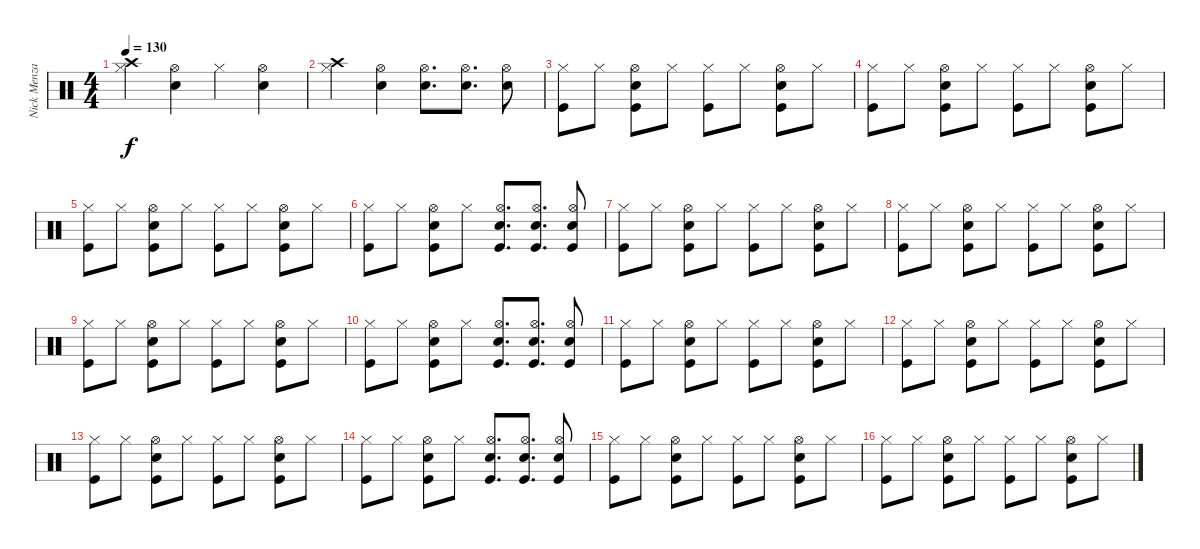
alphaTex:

\track ("Nick Menza" "Nick Menza") {instrument percussion}
\staff {score}
\articulation defaults
\ts (4 4)
\tempo 130
\clef neutral
\ks c
("Crash high (hit)" "Hi-Hat (closed)").4{dy f} ("Snare (hit) 2" "Hi-Hat (open)").4 "Hi-Hat (closed)".4 ("Snare (hit) 2" "Hi-Hat (open)").4 |
("Crash high (hit)" "Hi-Hat (closed)").4 ("Snare (hit) 2" "Hi-Hat (open)").4 ("Snare (hit) 2" "Hi-Hat (open)").8{d} ("Snare (hit) 2" "Hi-Hat (open)").8{d} ("Snare (hit) 2" "Hi-Hat (open)").8 |
("Hi-Hat (closed)" "Kick (hit)").8 "Hi-Hat (closed)".8 ("Snare (hit) 2" "Hi-Hat (open)" "Kick (hit)").8 "Hi-Hat (closed)".8 ("Hi-Hat (closed)" "Kick (hit)").8 "Hi-Hat (closed)".8 ("Snare (hit) 2" "Hi-Hat (open)" "Kick (hit)").8 "Hi-Hat (closed)".8 |
("Hi-Hat (closed)" "Kick (hit)").8 "Hi-Hat (closed)".8 ("Snare (hit) 2" "Hi-Hat (open)" "Kick (hit)").8 "Hi-Hat (closed)".8 ("Hi-Hat (closed)" "Kick (hit)").8 "Hi-Hat (closed)".8 ("Snare (hit) 2" "Hi-Hat (open)" "Kick (hit)").8 "Hi-Hat (closed)".8 |
("Hi-Hat (closed)" "Kick (hit)").8 "Hi-Hat (closed)".8 ("Snare (hit) 2" "Hi-Hat (open)" "Kick (hit)").8 "Hi-Hat (closed)".8 ("Hi-Hat (closed)" "Kick (hit)").8 "Hi-Hat (closed)".8 ("Snare (hit) 2" "Hi-Hat (open)" "Kick (hit)").8 "Hi-Hat (closed)".8 |
("Hi-Hat (closed)" "Kick (hit)").8 "Hi-Hat (closed)".8 ("Snare (hit) 2" "Hi-Hat (open)" "Kick (hit)").8 "Hi-Hat (closed)".8 ("Snare (hit) 2" "Hi-Hat (open)" "Kick (hit)").8{d} ("Snare (hit) 2" "Hi-Hat (open)" "Kick (hit)").8{d} ("Snare (hit) 2" "Hi-Hat (open)" "Kick (hit)").8 |
("Hi-Hat (closed)" "Kick (hit)").8 "Hi-Hat (closed)".8 ("Snare (hit) 2" "Hi-Hat (open)" "Kick (hit)").8 "Hi-Hat (closed)".8 ("Hi-Hat (closed)" "Kick (hit)").8 "Hi-Hat (closed)".8 ("Snare (hit) 2" "Hi-Hat (open)" "Kick (hit)").8 "Hi-Hat (closed)".8 |
("Hi-Hat (closed)" "Kick (hit)").8 "Hi-Hat (closed)".8 ("Snare (hit) 2" "Hi-Hat (open)" "Kick (hit)").8 "Hi-Hat (closed)".8 ("Hi-Hat (closed)" "Kick (hit)").8 "Hi-Hat (closed)".8 ("Snare (hit) 2" "Hi-Hat (open)" "Kick (hit)").8 "Hi-Hat (closed)".8 |
("Hi-Hat (closed)" "Kick (hit)").8 "Hi-Hat (closed)".8 ("Snare (hit) 2" "Hi-Hat (open)" "Kick (hit)").8 "Hi-Hat (closed)".8 ("Hi-Hat (closed)" "Kick (hit)").8 "Hi-Hat (closed)".8 ("Snare (hit) 2" "Hi-Hat (open)" "Kick (hit)").8 "Hi-Hat (closed)".8 |
("Hi-Hat (closed)" "Kick (hit)").8 "Hi-Hat (closed)".8 ("Snare (hit) 2" "Hi-Hat (open)" "Kick (hit)").8 "Hi-Hat (closed)".8 ("Snare (hit) 2" "Hi-Hat (open)" "Kick (hit)").8{d} ("Snare (hit) 2" "Hi-Hat (open)" "Kick (hit)").8{d} ("Snare (hit) 2" "Hi-Hat (open)" "Kick (hit)").8 |
("Hi-Hat (closed)" "Kick (hit)").8 "Hi-Hat (closed)".8 ("Snare (hit) 2" "Hi-Hat (open)" "Kick (hit)").8 "Hi-Hat (closed)".8 ("Hi-Hat (closed)" "Kick (hit)").8 "Hi-Hat (closed)".8 ("Snare (hit) 2" "Hi-Hat (open)" "Kick (hit)").8 "Hi-Hat (closed)".8 |
("Hi-Hat (closed)" "Kick (hit)").8 "Hi-Hat (closed)".8 ("Snare (hit) 2" "Hi-Hat (open)" "Kick (hit)").8 "Hi-Hat (closed)".8 ("Hi-Hat (closed)" "Kick (hit)").8 "Hi-Hat (closed)".8 ("Snare (hit) 2" "Hi-Hat (open)" "Kick (hit)").8 "Hi-Hat (closed)".8 |
("Hi-Hat (closed)" "Kick (hit)").8 "Hi-Hat (closed)".8 ("Snare (hit) 2" "Hi-Hat (open)" "Kick (hit)").8 "Hi-Hat (closed)".8 ("Hi-Hat (closed)" "Kick (hit)").8 "Hi-Hat (closed)".8 ("Snare (hit) 2" "Hi-Hat (open)" "Kick (hit)").8 "Hi-Hat (closed)".8 |
("Hi-Hat (closed)" "Kick (hit)").8 "Hi-Hat (closed)".8 ("Snare (hit) 2" "Hi-Hat (open)" "Kick (hit)").8 "Hi-Hat (closed)".8 ("Snare (hit) 2" "Hi-Hat (open)" "Kick (hit)").8{d} ("Snare (hit) 2" "Hi-Hat (open)" "Kick (hit)").8{d} ("Snare (hit) 2" "Hi-Hat (open)" "Kick (hit)").8 |
("Hi-Hat (closed)" "Kick (hit)").8 "Hi-Hat (closed)".8 ("Snare (hit) 2" "Hi-Hat (open)" "Kick (hit)").8 "Hi-Hat (closed)".8 ("Hi-Hat (closed)" "Kick (hit)").8 "Hi-Hat (closed)".8 ("Snare (hit) 2" "Hi-Hat (open)" "Kick (hit)").8 "Hi-Hat (closed)".8 |
("Hi-Hat (closed)" "Kick (hit)").8 "Hi-Hat (closed)".8 ("Snare (hit) 2" "Hi-Hat (open)" "Kick (hit)").8 "Hi-Hat (closed)".8 ("Hi-Hat (closed)" "Kick (hit)").8 "Hi-Hat (closed)".8 ("Snare (hit) 2" "Hi-Hat (open)" "Kick (hit)").8 "Hi-Hat (closed)".8
